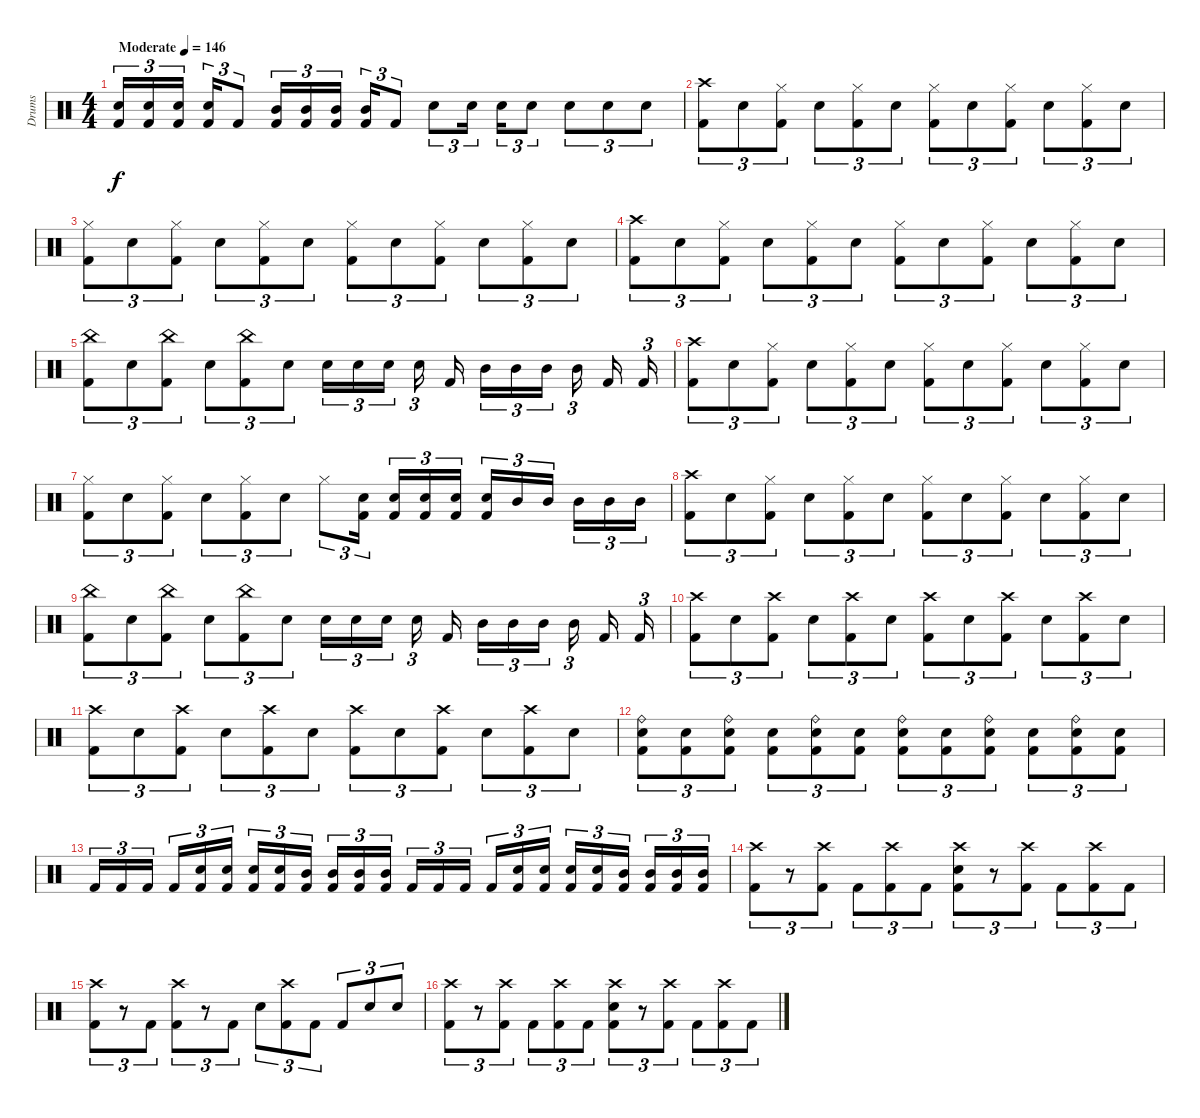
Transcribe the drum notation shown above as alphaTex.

\track ("Drums" "Drums") {instrument percussion}
\staff {score}
\articulation defaults
\ts (4 4)
\tempo (146 "Moderate")
\clef neutral
\ks c
("Snare (hit) 2" "Kick (hit) 2").16{tu (3 2) dy f} ("Snare (hit) 2" "Kick (hit) 2").16{tu (3 2)} ("Snare (hit) 2" "Kick (hit) 2").16{tu (3 2)} ("Snare (hit) 2" "Kick (hit) 2").16{tu (3 2)} "Kick (hit) 2".8{tu (3 2)} ("Mid Tom (hit)" "Kick (hit) 2").16{tu (3 2)} ("Mid Tom (hit)" "Kick (hit) 2").16{tu (3 2)} ("Mid Tom (hit)" "Kick (hit) 2").16{tu (3 2)} ("Mid Tom (hit)" "Kick (hit) 2").16{tu (3 2)} "Kick (hit) 2".8{tu (3 2)} "Snare (hit) 2".8{tu (3 2)} "Snare (hit) 2".16{tu (3 2)} "Snare (hit) 2".16{tu (3 2)} "Snare (hit) 2".8{tu (3 2)} "Snare (hit) 2".8{tu (3 2)} "Snare (hit) 2".8{tu (3 2)} "Snare (hit) 2".8{tu (3 2)} |
("Crash high (hit)" "Kick (hit) 2").8{tu (3 2)} "Snare (hit) 2".8{tu (3 2)} ("Hi-Hat (closed)" "Kick (hit) 2").8{tu (3 2)} "Snare (hit) 2".8{tu (3 2)} ("Hi-Hat (closed)" "Kick (hit) 2").8{tu (3 2)} "Snare (hit) 2".8{tu (3 2)} ("Hi-Hat (closed)" "Kick (hit) 2").8{tu (3 2)} "Snare (hit) 2".8{tu (3 2)} ("Hi-Hat (closed)" "Kick (hit) 2").8{tu (3 2)} "Snare (hit) 2".8{tu (3 2)} ("Hi-Hat (closed)" "Kick (hit) 2").8{tu (3 2)} "Snare (hit) 2".8{tu (3 2)} |
("Hi-Hat (closed)" "Kick (hit) 2").8{tu (3 2)} "Snare (hit) 2".8{tu (3 2)} ("Hi-Hat (closed)" "Kick (hit) 2").8{tu (3 2)} "Snare (hit) 2".8{tu (3 2)} ("Hi-Hat (closed)" "Kick (hit) 2").8{tu (3 2)} "Snare (hit) 2".8{tu (3 2)} ("Hi-Hat (closed)" "Kick (hit) 2").8{tu (3 2)} "Snare (hit) 2".8{tu (3 2)} ("Hi-Hat (closed)" "Kick (hit) 2").8{tu (3 2)} "Snare (hit) 2".8{tu (3 2)} ("Hi-Hat (closed)" "Kick (hit) 2").8{tu (3 2)} "Snare (hit) 2".8{tu (3 2)} |
("Crash high (hit)" "Kick (hit) 2").8{tu (3 2)} "Snare (hit) 2".8{tu (3 2)} ("Hi-Hat (closed)" "Kick (hit) 2").8{tu (3 2)} "Snare (hit) 2".8{tu (3 2)} ("Hi-Hat (closed)" "Kick (hit) 2").8{tu (3 2)} "Snare (hit) 2".8{tu (3 2)} ("Hi-Hat (closed)" "Kick (hit) 2").8{tu (3 2)} "Snare (hit) 2".8{tu (3 2)} ("Hi-Hat (closed)" "Kick (hit) 2").8{tu (3 2)} "Snare (hit) 2".8{tu (3 2)} ("Hi-Hat (closed)" "Kick (hit) 2").8{tu (3 2)} "Snare (hit) 2".8{tu (3 2)} |
("China (hit)" "Kick (hit) 2").8{tu (3 2)} "Snare (hit) 2".8{tu (3 2)} ("China (hit)" "Kick (hit) 2").8{tu (3 2)} "Snare (hit) 2".8{tu (3 2)} ("China (hit)" "Kick (hit) 2").8{tu (3 2)} "Snare (hit) 2".8{tu (3 2)} "Snare (hit) 2".16{tu (3 2)} "Snare (hit) 2".16{tu (3 2)} "Snare (hit) 2".16{tu (3 2)} "Snare (hit) 2".16{tu (3 2)} "Kick (hit) 2".16 "Mid Tom (hit)".16{tu (3 2)} "Mid Tom (hit)".16{tu (3 2)} "Mid Tom (hit)".16{tu (3 2)} "Mid Tom (hit)".16{tu (3 2)} "Kick (hit) 2".16 "Kick (hit) 2".16{tu (3 2)} |
("Crash high (hit)" "Kick (hit) 2").8{tu (3 2)} "Snare (hit) 2".8{tu (3 2)} ("Hi-Hat (closed)" "Kick (hit) 2").8{tu (3 2)} "Snare (hit) 2".8{tu (3 2)} ("Hi-Hat (closed)" "Kick (hit) 2").8{tu (3 2)} "Snare (hit) 2".8{tu (3 2)} ("Hi-Hat (closed)" "Kick (hit) 2").8{tu (3 2)} "Snare (hit) 2".8{tu (3 2)} ("Hi-Hat (closed)" "Kick (hit) 2").8{tu (3 2)} "Snare (hit) 2".8{tu (3 2)} ("Hi-Hat (closed)" "Kick (hit) 2").8{tu (3 2)} "Snare (hit) 2".8{tu (3 2)} |
("Hi-Hat (closed)" "Kick (hit) 2").8{tu (3 2)} "Snare (hit) 2".8{tu (3 2)} ("Hi-Hat (closed)" "Kick (hit) 2").8{tu (3 2)} "Snare (hit) 2".8{tu (3 2)} ("Hi-Hat (closed)" "Kick (hit) 2").8{tu (3 2)} "Snare (hit) 2".8{tu (3 2)} "Hi-Hat (closed)".8{tu (3 2)} ("Snare (hit) 2" "Kick (hit) 2").16{tu (3 2)} ("Snare (hit) 2" "Kick (hit) 2").16{tu (3 2)} ("Snare (hit) 2" "Kick (hit) 2").16{tu (3 2)} ("Snare (hit) 2" "Kick (hit) 2").16{tu (3 2)} ("Snare (hit) 2" "Kick (hit) 2").16{tu (3 2)} "Mid Tom (hit)".16{tu (3 2)} "Mid Tom (hit)".16{tu (3 2)} "Mid Tom (hit)".16{tu (3 2)} "Mid Tom (hit)".16{tu (3 2)} "Mid Tom (hit)".16{tu (3 2)} |
("Crash high (hit)" "Kick (hit) 2").8{tu (3 2)} "Snare (hit) 2".8{tu (3 2)} ("Hi-Hat (closed)" "Kick (hit) 2").8{tu (3 2)} "Snare (hit) 2".8{tu (3 2)} ("Hi-Hat (closed)" "Kick (hit) 2").8{tu (3 2)} "Snare (hit) 2".8{tu (3 2)} ("Hi-Hat (closed)" "Kick (hit) 2").8{tu (3 2)} "Snare (hit) 2".8{tu (3 2)} ("Hi-Hat (closed)" "Kick (hit) 2").8{tu (3 2)} "Snare (hit) 2".8{tu (3 2)} ("Hi-Hat (closed)" "Kick (hit) 2").8{tu (3 2)} "Snare (hit) 2".8{tu (3 2)} |
("China (hit)" "Kick (hit) 2").8{tu (3 2)} "Snare (hit) 2".8{tu (3 2)} ("China (hit)" "Kick (hit) 2").8{tu (3 2)} "Snare (hit) 2".8{tu (3 2)} ("China (hit)" "Kick (hit) 2").8{tu (3 2)} "Snare (hit) 2".8{tu (3 2)} "Snare (hit) 2".16{tu (3 2)} "Snare (hit) 2".16{tu (3 2)} "Snare (hit) 2".16{tu (3 2)} "Snare (hit) 2".16{tu (3 2)} "Kick (hit) 2".16 "Mid Tom (hit)".16{tu (3 2)} "Mid Tom (hit)".16{tu (3 2)} "Mid Tom (hit)".16{tu (3 2)} "Mid Tom (hit)".16{tu (3 2)} "Kick (hit) 2".16 "Kick (hit) 2".16{tu (3 2)} |
("Crash high (hit)" "Kick (hit) 2").8{tu (3 2)} "Snare (hit) 2".8{tu (3 2)} ("Crash high (hit)" "Kick (hit) 2").8{tu (3 2)} "Snare (hit) 2".8{tu (3 2)} ("Crash high (hit)" "Kick (hit) 2").8{tu (3 2)} "Snare (hit) 2".8{tu (3 2)} ("Crash high (hit)" "Kick (hit) 2").8{tu (3 2)} "Snare (hit) 2".8{tu (3 2)} ("Crash high (hit)" "Kick (hit) 2").8{tu (3 2)} "Snare (hit) 2".8{tu (3 2)} ("Crash high (hit)" "Kick (hit) 2").8{tu (3 2)} "Snare (hit) 2".8{tu (3 2)} |
("Crash high (hit)" "Kick (hit) 2").8{tu (3 2)} "Snare (hit) 2".8{tu (3 2)} ("Crash high (hit)" "Kick (hit) 2").8{tu (3 2)} "Snare (hit) 2".8{tu (3 2)} ("Crash high (hit)" "Kick (hit) 2").8{tu (3 2)} "Snare (hit) 2".8{tu (3 2)} ("Crash high (hit)" "Kick (hit) 2").8{tu (3 2)} "Snare (hit) 2".8{tu (3 2)} ("Crash high (hit)" "Kick (hit) 2").8{tu (3 2)} "Snare (hit) 2".8{tu (3 2)} ("Crash high (hit)" "Kick (hit) 2").8{tu (3 2)} "Snare (hit) 2".8{tu (3 2)} |
("Ride (bell)" "Snare (hit) 2" "Kick (hit) 2").8{tu (3 2)} ("Snare (hit) 2" "Kick (hit) 2").8{tu (3 2)} ("Ride (bell)" "Snare (hit) 2" "Kick (hit) 2").8{tu (3 2)} ("Snare (hit) 2" "Kick (hit) 2").8{tu (3 2)} ("Ride (bell)" "Snare (hit) 2" "Kick (hit) 2").8{tu (3 2)} ("Snare (hit) 2" "Kick (hit) 2").8{tu (3 2)} ("Ride (bell)" "Snare (hit) 2" "Kick (hit) 2").8{tu (3 2)} ("Snare (hit) 2" "Kick (hit) 2").8{tu (3 2)} ("Ride (bell)" "Snare (hit) 2" "Kick (hit) 2").8{tu (3 2)} ("Snare (hit) 2" "Kick (hit) 2").8{tu (3 2)} ("Ride (bell)" "Snare (hit) 2" "Kick (hit) 2").8{tu (3 2)} ("Snare (hit) 2" "Kick (hit) 2").8{tu (3 2)} |
"Kick (hit) 2".16{tu (3 2)} "Kick (hit) 2".16{tu (3 2)} "Kick (hit) 2".16{tu (3 2)} "Kick (hit) 2".16{tu (3 2)} ("Snare (hit) 2" "Kick (hit) 2").16{tu (3 2)} ("Snare (hit) 2" "Kick (hit) 2").16{tu (3 2)} ("Snare (hit) 2" "Kick (hit) 2").16{tu (3 2)} ("Snare (hit) 2" "Kick (hit) 2").16{tu (3 2)} ("Mid Tom (hit)" "Kick (hit) 2").16{tu (3 2)} ("Mid Tom (hit)" "Kick (hit) 2").16{tu (3 2)} ("Mid Tom (hit)" "Kick (hit) 2").16{tu (3 2)} ("Mid Tom (hit)" "Kick (hit) 2").16{tu (3 2)} "Kick (hit) 2".16{tu (3 2)} "Kick (hit) 2".16{tu (3 2)} "Kick (hit) 2".16{tu (3 2)} "Kick (hit) 2".16{tu (3 2)} ("Snare (hit) 2" "Kick (hit) 2").16{tu (3 2)} ("Snare (hit) 2" "Kick (hit) 2").16{tu (3 2)} ("Snare (hit) 2" "Kick (hit) 2").16{tu (3 2)} ("Snare (hit) 2" "Kick (hit) 2").16{tu (3 2)} ("Mid Tom (hit)" "Kick (hit) 2").16{tu (3 2)} ("Mid Tom (hit)" "Kick (hit) 2").16{tu (3 2)} ("Mid Tom (hit)" "Kick (hit) 2").16{tu (3 2)} ("Mid Tom (hit)" "Kick (hit) 2").16{tu (3 2)} |
("Crash high (hit)" "Kick (hit) 2").8{tu (3 2)} r.8{tu (3 2)} ("Crash high (hit)" "Kick (hit) 2").8{tu (3 2)} "Kick (hit) 2".8{tu (3 2)} ("Crash high (hit)" "Kick (hit) 2").8{tu (3 2)} "Kick (hit) 2".8{tu (3 2)} ("Crash high (hit)" "Snare (hit) 2" "Kick (hit) 2").8{tu (3 2)} r.8{tu (3 2)} ("Crash high (hit)" "Kick (hit) 2").8{tu (3 2)} "Kick (hit) 2".8{tu (3 2)} ("Crash high (hit)" "Kick (hit) 2").8{tu (3 2)} "Kick (hit) 2".8{tu (3 2)} |
("Crash high (hit)" "Kick (hit) 2").8{tu (3 2)} r.8{tu (3 2)} "Kick (hit) 2".8{tu (3 2)} ("Crash high (hit)" "Kick (hit) 2").8{tu (3 2)} r.8{tu (3 2)} "Kick (hit) 2".8{tu (3 2)} "Snare (hit) 2".8{tu (3 2)} ("Crash high (hit)" "Kick (hit) 2").8{tu (3 2)} "Kick (hit) 2".8{tu (3 2)} "Kick (hit) 2".8{tu (3 2)} "Snare (hit) 2".8{tu (3 2)} "Snare (hit) 2".8{tu (3 2)} |
("Crash high (hit)" "Kick (hit) 2").8{tu (3 2)} r.8{tu (3 2)} ("Crash high (hit)" "Kick (hit) 2").8{tu (3 2)} "Kick (hit) 2".8{tu (3 2)} ("Crash high (hit)" "Kick (hit) 2").8{tu (3 2)} "Kick (hit) 2".8{tu (3 2)} ("Crash high (hit)" "Snare (hit) 2" "Kick (hit) 2").8{tu (3 2)} r.8{tu (3 2)} ("Crash high (hit)" "Kick (hit) 2").8{tu (3 2)} "Kick (hit) 2".8{tu (3 2)} ("Crash high (hit)" "Kick (hit) 2").8{tu (3 2)} "Kick (hit) 2".8{tu (3 2)}
